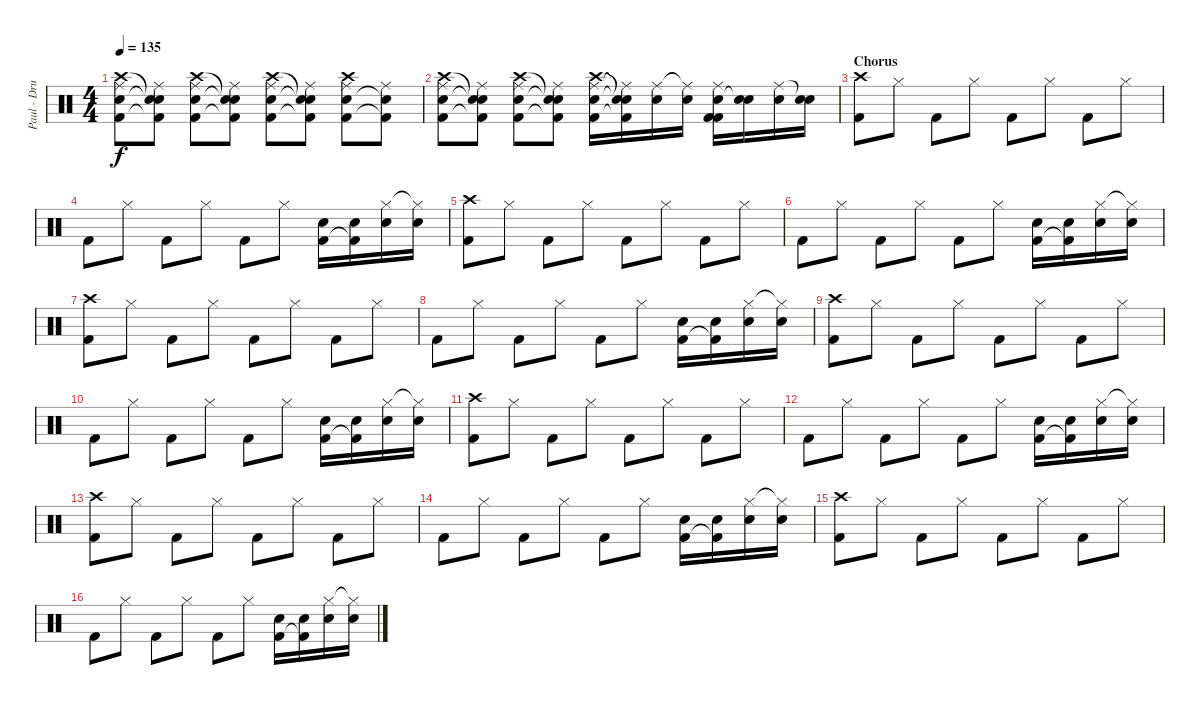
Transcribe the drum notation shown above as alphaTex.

\track ("Paul - Drums" "Paul - Dru") {instrument percussion}
\staff {score}
\articulation defaults
\ts (4 4)
\tempo 135
\clef neutral
\ks c
("Kick (hit) 2" "Snare (hit) 2" "Crash high (hit)" "Ride (middle)").8{dy f} ("Kick (hit) 2"{t} "Snare (hit) 2"{t} "Snare (hit)"{t} "Ride (middle)").8 ("Kick (hit) 2" "Snare (hit) 2" "Crash high (hit)" "Ride (middle)").8 ("Kick (hit) 2"{t} "Snare (hit) 2"{t} "Snare (hit)"{t} "Ride (middle)").8 ("Kick (hit) 2" "Snare (hit) 2" "Crash high (hit)" "Ride (middle)").8 ("Kick (hit) 2"{t} "Snare (hit) 2"{t} "Snare (hit)"{t} "Ride (middle)").8 ("Kick (hit) 2" "Snare (hit) 2" "Crash high (hit)" "Ride (middle)").8 ("Kick (hit) 2"{t} "Snare (hit) 2"{t} "Ride (middle)").8 |
("Kick (hit) 2" "Snare (hit) 2" "Crash high (hit)" "Ride (middle)").8 ("Kick (hit) 2"{t} "Snare (hit) 2"{t} "Snare (hit)"{t} "Ride (middle)").8 ("Kick (hit) 2" "Snare (hit) 2" "Crash high (hit)" "Ride (middle)").8 ("Kick (hit) 2"{t} "Snare (hit) 2"{t} "Snare (hit)"{t} "Ride (middle)").8 ("Kick (hit) 2" "Snare (hit) 2" "Crash high (hit)" "Ride (middle)").16 ("Kick (hit) 2"{t} "Snare (hit) 2"{t} "Snare (hit)"{t} "Ride (middle)"{t}).16 ("Snare (hit) 2" "Ride (middle)").16 ("Snare (hit) 2" "Ride (middle)"{t}).16 ("Kick (hit) 2" "Snare (hit) 2" "Kick (hit) 2" "Ride (middle)").16 ("Snare (hit) 2" "Snare (hit)"{t}).16 ("Snare (hit) 2" "Ride (middle)").16 ("Snare (hit) 2" "Snare (hit)"{t}).16 |
\section ("" "Chorus")
("Kick (hit) 2" "Crash high (hit)").8 "Hi-Hat (closed)".8 "Kick (hit) 2".8 "Hi-Hat (closed)".8 "Kick (hit) 2".8 "Hi-Hat (closed)".8 "Kick (hit) 2".8 "Hi-Hat (closed)".8 |
"Kick (hit) 2".8 "Hi-Hat (closed)".8 "Kick (hit) 2".8 "Hi-Hat (closed)".8 "Kick (hit) 2".8 "Hi-Hat (closed)".8 ("Kick (hit) 2" "Snare (hit) 2").16 ("Kick (hit) 2"{t} "Snare (hit) 2").16 ("Hi-Hat (closed)" "Snare (hit) 2").16 ("Hi-Hat (closed)"{t} "Snare (hit) 2").16 |
("Kick (hit) 2" "Crash high (hit)").8 "Hi-Hat (closed)".8 "Kick (hit) 2".8 "Hi-Hat (closed)".8 "Kick (hit) 2".8 "Hi-Hat (closed)".8 "Kick (hit) 2".8 "Hi-Hat (closed)".8 |
"Kick (hit) 2".8 "Hi-Hat (closed)".8 "Kick (hit) 2".8 "Hi-Hat (closed)".8 "Kick (hit) 2".8 "Hi-Hat (closed)".8 ("Kick (hit) 2" "Snare (hit) 2").16 ("Kick (hit) 2"{t} "Snare (hit) 2").16 ("Hi-Hat (closed)" "Snare (hit) 2").16 ("Hi-Hat (closed)"{t} "Snare (hit) 2").16 |
("Kick (hit) 2" "Crash high (hit)").8 "Hi-Hat (closed)".8 "Kick (hit) 2".8 "Hi-Hat (closed)".8 "Kick (hit) 2".8 "Hi-Hat (closed)".8 "Kick (hit) 2".8 "Hi-Hat (closed)".8 |
"Kick (hit) 2".8 "Hi-Hat (closed)".8 "Kick (hit) 2".8 "Hi-Hat (closed)".8 "Kick (hit) 2".8 "Hi-Hat (closed)".8 ("Kick (hit) 2" "Snare (hit) 2").16 ("Kick (hit) 2"{t} "Snare (hit) 2").16 ("Hi-Hat (closed)" "Snare (hit) 2").16 ("Hi-Hat (closed)"{t} "Snare (hit) 2").16 |
("Kick (hit) 2" "Crash high (hit)").8 "Hi-Hat (closed)".8 "Kick (hit) 2".8 "Hi-Hat (closed)".8 "Kick (hit) 2".8 "Hi-Hat (closed)".8 "Kick (hit) 2".8 "Hi-Hat (closed)".8 |
"Kick (hit) 2".8 "Hi-Hat (closed)".8 "Kick (hit) 2".8 "Hi-Hat (closed)".8 "Kick (hit) 2".8 "Hi-Hat (closed)".8 ("Kick (hit) 2" "Snare (hit) 2").16 ("Kick (hit) 2"{t} "Snare (hit) 2").16 ("Hi-Hat (closed)" "Snare (hit) 2").16 ("Hi-Hat (closed)"{t} "Snare (hit) 2").16 |
("Kick (hit) 2" "Crash high (hit)").8 "Hi-Hat (closed)".8 "Kick (hit) 2".8 "Hi-Hat (closed)".8 "Kick (hit) 2".8 "Hi-Hat (closed)".8 "Kick (hit) 2".8 "Hi-Hat (closed)".8 |
"Kick (hit) 2".8 "Hi-Hat (closed)".8 "Kick (hit) 2".8 "Hi-Hat (closed)".8 "Kick (hit) 2".8 "Hi-Hat (closed)".8 ("Kick (hit) 2" "Snare (hit) 2").16 ("Kick (hit) 2"{t} "Snare (hit) 2").16 ("Hi-Hat (closed)" "Snare (hit) 2").16 ("Hi-Hat (closed)"{t} "Snare (hit) 2").16 |
("Kick (hit) 2" "Crash high (hit)").8 "Hi-Hat (closed)".8 "Kick (hit) 2".8 "Hi-Hat (closed)".8 "Kick (hit) 2".8 "Hi-Hat (closed)".8 "Kick (hit) 2".8 "Hi-Hat (closed)".8 |
"Kick (hit) 2".8 "Hi-Hat (closed)".8 "Kick (hit) 2".8 "Hi-Hat (closed)".8 "Kick (hit) 2".8 "Hi-Hat (closed)".8 ("Kick (hit) 2" "Snare (hit) 2").16 ("Kick (hit) 2"{t} "Snare (hit) 2").16 ("Hi-Hat (closed)" "Snare (hit) 2").16 ("Hi-Hat (closed)"{t} "Snare (hit) 2").16 |
("Kick (hit) 2" "Crash high (hit)").8 "Hi-Hat (closed)".8 "Kick (hit) 2".8 "Hi-Hat (closed)".8 "Kick (hit) 2".8 "Hi-Hat (closed)".8 "Kick (hit) 2".8 "Hi-Hat (closed)".8 |
"Kick (hit) 2".8 "Hi-Hat (closed)".8 "Kick (hit) 2".8 "Hi-Hat (closed)".8 "Kick (hit) 2".8 "Hi-Hat (closed)".8 ("Kick (hit) 2" "Snare (hit) 2").16 ("Kick (hit) 2"{t} "Snare (hit) 2").16 ("Hi-Hat (closed)" "Snare (hit) 2").16 ("Hi-Hat (closed)"{t} "Snare (hit) 2").16
